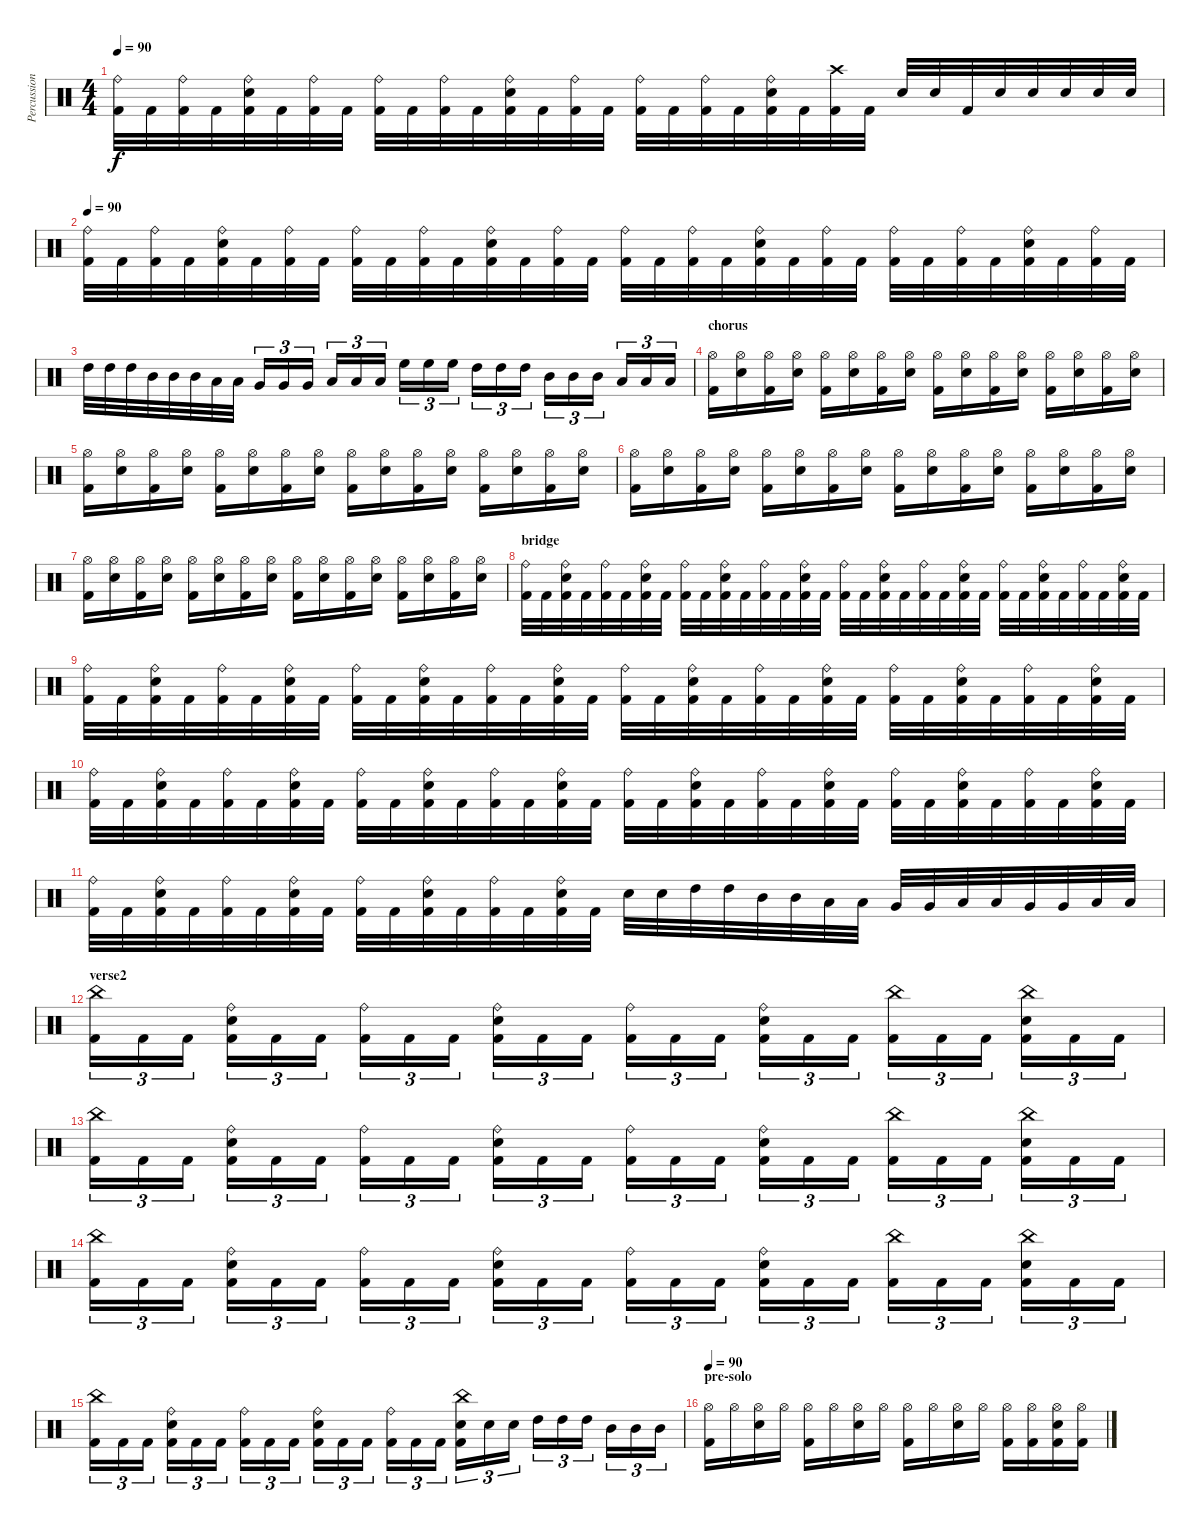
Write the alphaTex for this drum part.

\track ("Percussions" "Percussion") {instrument percussion}
\staff {score}
\articulation defaults
\ts (4 4)
\tempo 90
\clef neutral
\ks c
("Ride (bell)" "Kick (hit) 2").32{dy f} "Kick (hit) 2".32 ("Ride (bell)" "Kick (hit) 2").32 "Kick (hit) 2".32 ("Ride (bell)" "Electric Snare (hit)" "Kick (hit) 2").32 "Kick (hit) 2".32 ("Ride (bell)" "Kick (hit) 2").32 "Kick (hit) 2".32 ("Ride (bell)" "Kick (hit) 2").32 "Kick (hit) 2".32 ("Ride (bell)" "Kick (hit) 2").32 "Kick (hit) 2".32 ("Ride (bell)" "Electric Snare (hit)" "Kick (hit) 2").32 "Kick (hit) 2".32 ("Ride (bell)" "Kick (hit) 2").32 "Kick (hit) 2".32 ("Ride (bell)" "Kick (hit) 2").32 "Kick (hit) 2".32 ("Ride (bell)" "Kick (hit) 2").32 "Kick (hit) 2".32 ("Ride (bell)" "Electric Snare (hit)" "Kick (hit) 2").32 "Kick (hit) 2".32 ("Crash high (hit)" "Kick (hit) 2").32 "Kick (hit) 2".32 "Electric Snare (hit)".32 "Electric Snare (hit)".32 "Kick (hit) 2".32 "Electric Snare (hit)".32 "Electric Snare (hit)".32 "Electric Snare (hit)".32 "Electric Snare (hit)".32 "Electric Snare (hit)".32 |
\tempo 90
("Ride (bell)" "Kick (hit) 2").32 "Kick (hit) 2".32 ("Ride (bell)" "Kick (hit) 2").32 "Kick (hit) 2".32 ("Ride (bell)" "Electric Snare (hit)" "Kick (hit) 2").32 "Kick (hit) 2".32 ("Ride (bell)" "Kick (hit) 2").32 "Kick (hit) 2".32 ("Ride (bell)" "Kick (hit) 2").32 "Kick (hit) 2".32 ("Ride (bell)" "Kick (hit) 2").32 "Kick (hit) 2".32 ("Ride (bell)" "Electric Snare (hit)" "Kick (hit) 2").32 "Kick (hit) 2".32 ("Ride (bell)" "Kick (hit) 2").32 "Kick (hit) 2".32 ("Ride (bell)" "Kick (hit) 2").32 "Kick (hit) 2".32 ("Ride (bell)" "Kick (hit) 2").32 "Kick (hit) 2".32 ("Ride (bell)" "Electric Snare (hit)" "Kick (hit) 2").32 "Kick (hit) 2".32 ("Ride (bell)" "Kick (hit) 2").32 "Kick (hit) 2".32 ("Ride (bell)" "Kick (hit) 2").32 "Kick (hit) 2".32 ("Ride (bell)" "Kick (hit) 2").32 "Kick (hit) 2".32 ("Ride (bell)" "Electric Snare (hit)" "Kick (hit) 2").32 "Kick (hit) 2".32 ("Ride (bell)" "Kick (hit) 2").32 "Kick (hit) 2".32 |
"High Tom (hit)".32 "High Tom (hit)".32 "High Tom (hit)".32 "Mid Tom (hit)".32 "Mid Tom (hit)".32 "Mid Tom (hit)".32 "Low Tom (hit)".32 "Low Tom (hit)".32 "Very Low Tom (hit)".16{tu (3 2)} "Very Low Tom (hit)".16{tu (3 2)} "Very Low Tom (hit)".16{tu (3 2)} "Low Floor Tom (hit)".16{tu (3 2)} "Low Floor Tom (hit)".16{tu (3 2)} "Low Floor Tom (hit)".16{tu (3 2)} "High Floor Tom (hit)".16{tu (3 2)} "High Floor Tom (hit)".16{tu (3 2)} "High Floor Tom (hit)".16{tu (3 2)} "High Tom (hit)".16{tu (3 2)} "High Tom (hit)".16{tu (3 2)} "High Tom (hit)".16{tu (3 2)} "Mid Tom (hit)".16{tu (3 2)} "Mid Tom (hit)".16{tu (3 2)} "Mid Tom (hit)".16{tu (3 2)} "Low Tom (hit)".16{tu (3 2)} "Low Tom (hit)".16{tu (3 2)} "Low Tom (hit)".16{tu (3 2)} |
\section ("" "chorus")
("Hi-Hat (open)" "Kick (hit) 2").16 ("Hi-Hat (open)" "Electric Snare (hit)").16 ("Hi-Hat (open)" "Kick (hit) 2").16 ("Hi-Hat (open)" "Electric Snare (hit)").16 ("Hi-Hat (open)" "Kick (hit) 2").16 ("Hi-Hat (open)" "Electric Snare (hit)").16 ("Hi-Hat (open)" "Kick (hit) 2").16 ("Hi-Hat (open)" "Electric Snare (hit)").16 ("Hi-Hat (open)" "Kick (hit) 2").16 ("Hi-Hat (open)" "Electric Snare (hit)").16 ("Hi-Hat (open)" "Kick (hit) 2").16 ("Hi-Hat (open)" "Electric Snare (hit)").16 ("Hi-Hat (open)" "Kick (hit) 2").16 ("Hi-Hat (open)" "Electric Snare (hit)").16 ("Hi-Hat (open)" "Kick (hit) 2").16 ("Hi-Hat (open)" "Electric Snare (hit)").16 |
("Hi-Hat (open)" "Kick (hit) 2").16 ("Hi-Hat (open)" "Electric Snare (hit)").16 ("Hi-Hat (open)" "Kick (hit) 2").16 ("Hi-Hat (open)" "Electric Snare (hit)").16 ("Hi-Hat (open)" "Kick (hit) 2").16 ("Hi-Hat (open)" "Electric Snare (hit)").16 ("Hi-Hat (open)" "Kick (hit) 2").16 ("Hi-Hat (open)" "Electric Snare (hit)").16 ("Hi-Hat (open)" "Kick (hit) 2").16 ("Hi-Hat (open)" "Electric Snare (hit)").16 ("Hi-Hat (open)" "Kick (hit) 2").16 ("Hi-Hat (open)" "Electric Snare (hit)").16 ("Hi-Hat (open)" "Kick (hit) 2").16 ("Hi-Hat (open)" "Electric Snare (hit)").16 ("Hi-Hat (open)" "Kick (hit) 2").16 ("Hi-Hat (open)" "Electric Snare (hit)").16 |
("Hi-Hat (open)" "Kick (hit) 2").16 ("Hi-Hat (open)" "Electric Snare (hit)").16 ("Hi-Hat (open)" "Kick (hit) 2").16 ("Hi-Hat (open)" "Electric Snare (hit)").16 ("Hi-Hat (open)" "Kick (hit) 2").16 ("Hi-Hat (open)" "Electric Snare (hit)").16 ("Hi-Hat (open)" "Kick (hit) 2").16 ("Hi-Hat (open)" "Electric Snare (hit)").16 ("Hi-Hat (open)" "Kick (hit) 2").16 ("Hi-Hat (open)" "Electric Snare (hit)").16 ("Hi-Hat (open)" "Kick (hit) 2").16 ("Hi-Hat (open)" "Electric Snare (hit)").16 ("Hi-Hat (open)" "Kick (hit) 2").16 ("Hi-Hat (open)" "Electric Snare (hit)").16 ("Hi-Hat (open)" "Kick (hit) 2").16 ("Hi-Hat (open)" "Electric Snare (hit)").16 |
("Hi-Hat (open)" "Kick (hit) 2").16 ("Hi-Hat (open)" "Electric Snare (hit)").16 ("Hi-Hat (open)" "Kick (hit) 2").16 ("Hi-Hat (open)" "Electric Snare (hit)").16 ("Hi-Hat (open)" "Kick (hit) 2").16 ("Hi-Hat (open)" "Electric Snare (hit)").16 ("Hi-Hat (open)" "Kick (hit) 2").16 ("Hi-Hat (open)" "Electric Snare (hit)").16 ("Hi-Hat (open)" "Kick (hit) 2").16 ("Hi-Hat (open)" "Electric Snare (hit)").16 ("Hi-Hat (open)" "Kick (hit) 2").16 ("Hi-Hat (open)" "Electric Snare (hit)").16 ("Hi-Hat (open)" "Kick (hit) 2").16 ("Hi-Hat (open)" "Electric Snare (hit)").16 ("Hi-Hat (open)" "Kick (hit) 2").16 ("Hi-Hat (open)" "Electric Snare (hit)").16 |
\section ("" "bridge")
("Ride (bell)" "Kick (hit) 2").32 "Kick (hit) 2".32 ("Ride (bell)" "Electric Snare (hit)" "Kick (hit) 2").32 "Kick (hit) 2".32 ("Ride (bell)" "Kick (hit) 2").32 "Kick (hit) 2".32 ("Ride (bell)" "Electric Snare (hit)" "Kick (hit) 2").32 "Kick (hit) 2".32 ("Ride (bell)" "Kick (hit) 2").32 "Kick (hit) 2".32 ("Ride (bell)" "Electric Snare (hit)" "Kick (hit) 2").32 "Kick (hit) 2".32 ("Ride (bell)" "Kick (hit) 2").32 "Kick (hit) 2".32 ("Ride (bell)" "Electric Snare (hit)" "Kick (hit) 2").32 "Kick (hit) 2".32 ("Ride (bell)" "Kick (hit) 2").32 "Kick (hit) 2".32 ("Ride (bell)" "Electric Snare (hit)" "Kick (hit) 2").32 "Kick (hit) 2".32 ("Ride (bell)" "Kick (hit) 2").32 "Kick (hit) 2".32 ("Ride (bell)" "Electric Snare (hit)" "Kick (hit) 2").32 "Kick (hit) 2".32 ("Ride (bell)" "Kick (hit) 2").32 "Kick (hit) 2".32 ("Ride (bell)" "Electric Snare (hit)" "Kick (hit) 2").32 "Kick (hit) 2".32 ("Ride (bell)" "Kick (hit) 2").32 "Kick (hit) 2".32 ("Ride (bell)" "Electric Snare (hit)" "Kick (hit) 2").32 "Kick (hit) 2".32 |
("Ride (bell)" "Kick (hit) 2").32 "Kick (hit) 2".32 ("Ride (bell)" "Electric Snare (hit)" "Kick (hit) 2").32 "Kick (hit) 2".32 ("Ride (bell)" "Kick (hit) 2").32 "Kick (hit) 2".32 ("Ride (bell)" "Electric Snare (hit)" "Kick (hit) 2").32 "Kick (hit) 2".32 ("Ride (bell)" "Kick (hit) 2").32 "Kick (hit) 2".32 ("Ride (bell)" "Electric Snare (hit)" "Kick (hit) 2").32 "Kick (hit) 2".32 ("Ride (bell)" "Kick (hit) 2").32 "Kick (hit) 2".32 ("Ride (bell)" "Electric Snare (hit)" "Kick (hit) 2").32 "Kick (hit) 2".32 ("Ride (bell)" "Kick (hit) 2").32 "Kick (hit) 2".32 ("Ride (bell)" "Electric Snare (hit)" "Kick (hit) 2").32 "Kick (hit) 2".32 ("Ride (bell)" "Kick (hit) 2").32 "Kick (hit) 2".32 ("Ride (bell)" "Electric Snare (hit)" "Kick (hit) 2").32 "Kick (hit) 2".32 ("Ride (bell)" "Kick (hit) 2").32 "Kick (hit) 2".32 ("Ride (bell)" "Electric Snare (hit)" "Kick (hit) 2").32 "Kick (hit) 2".32 ("Ride (bell)" "Kick (hit) 2").32 "Kick (hit) 2".32 ("Ride (bell)" "Electric Snare (hit)" "Kick (hit) 2").32 "Kick (hit) 2".32 |
("Ride (bell)" "Kick (hit) 2").32 "Kick (hit) 2".32 ("Ride (bell)" "Electric Snare (hit)" "Kick (hit) 2").32 "Kick (hit) 2".32 ("Ride (bell)" "Kick (hit) 2").32 "Kick (hit) 2".32 ("Ride (bell)" "Electric Snare (hit)" "Kick (hit) 2").32 "Kick (hit) 2".32 ("Ride (bell)" "Kick (hit) 2").32 "Kick (hit) 2".32 ("Ride (bell)" "Electric Snare (hit)" "Kick (hit) 2").32 "Kick (hit) 2".32 ("Ride (bell)" "Kick (hit) 2").32 "Kick (hit) 2".32 ("Ride (bell)" "Electric Snare (hit)" "Kick (hit) 2").32 "Kick (hit) 2".32 ("Ride (bell)" "Kick (hit) 2").32 "Kick (hit) 2".32 ("Ride (bell)" "Electric Snare (hit)" "Kick (hit) 2").32 "Kick (hit) 2".32 ("Ride (bell)" "Kick (hit) 2").32 "Kick (hit) 2".32 ("Ride (bell)" "Electric Snare (hit)" "Kick (hit) 2").32 "Kick (hit) 2".32 ("Ride (bell)" "Kick (hit) 2").32 "Kick (hit) 2".32 ("Ride (bell)" "Electric Snare (hit)" "Kick (hit) 2").32 "Kick (hit) 2".32 ("Ride (bell)" "Kick (hit) 2").32 "Kick (hit) 2".32 ("Ride (bell)" "Electric Snare (hit)" "Kick (hit) 2").32 "Kick (hit) 2".32 |
("Ride (bell)" "Kick (hit) 2").32 "Kick (hit) 2".32 ("Ride (bell)" "Electric Snare (hit)" "Kick (hit) 2").32 "Kick (hit) 2".32 ("Ride (bell)" "Kick (hit) 2").32 "Kick (hit) 2".32 ("Ride (bell)" "Electric Snare (hit)" "Kick (hit) 2").32 "Kick (hit) 2".32 ("Ride (bell)" "Kick (hit) 2").32 "Kick (hit) 2".32 ("Ride (bell)" "Electric Snare (hit)" "Kick (hit) 2").32 "Kick (hit) 2".32 ("Ride (bell)" "Kick (hit) 2").32 "Kick (hit) 2".32 ("Ride (bell)" "Electric Snare (hit)" "Kick (hit) 2").32 "Kick (hit) 2".32 "Electric Snare (hit)".32 "Electric Snare (hit)".32 "High Tom (hit)".32 "High Tom (hit)".32 "Mid Tom (hit)".32 "Mid Tom (hit)".32 "Low Tom (hit)".32 "Low Tom (hit)".32 "Very Low Tom (hit)".32 "Very Low Tom (hit)".32 "Low Floor Tom (hit)".32 "Low Floor Tom (hit)".32 "Very Low Tom (hit)".32 "Very Low Tom (hit)".32 "Low Floor Tom (hit)".32 "Low Floor Tom (hit)".32 |
\section ("" "verse2")
("China (hit)" "Kick (hit) 2").16{tu (3 2)} "Kick (hit) 2".16{tu (3 2)} "Kick (hit) 2".16{tu (3 2)} ("Ride (bell)" "Electric Snare (hit)" "Kick (hit) 2").16{tu (3 2)} "Kick (hit) 2".16{tu (3 2)} "Kick (hit) 2".16{tu (3 2)} ("Ride (bell)" "Kick (hit) 2").16{tu (3 2)} "Kick (hit) 2".16{tu (3 2)} "Kick (hit) 2".16{tu (3 2)} ("Ride (bell)" "Electric Snare (hit)" "Kick (hit) 2").16{tu (3 2)} "Kick (hit) 2".16{tu (3 2)} "Kick (hit) 2".16{tu (3 2)} ("Ride (bell)" "Kick (hit) 2").16{tu (3 2)} "Kick (hit) 2".16{tu (3 2)} "Kick (hit) 2".16{tu (3 2)} ("Ride (bell)" "Electric Snare (hit)" "Kick (hit) 2").16{tu (3 2)} "Kick (hit) 2".16{tu (3 2)} "Kick (hit) 2".16{tu (3 2)} ("China (hit)" "Kick (hit) 2").16{tu (3 2)} "Kick (hit) 2".16{tu (3 2)} "Kick (hit) 2".16{tu (3 2)} ("China (hit)" "Electric Snare (hit)" "Kick (hit) 2").16{tu (3 2)} "Kick (hit) 2".16{tu (3 2)} "Kick (hit) 2".16{tu (3 2)} |
("China (hit)" "Kick (hit) 2").16{tu (3 2)} "Kick (hit) 2".16{tu (3 2)} "Kick (hit) 2".16{tu (3 2)} ("Ride (bell)" "Electric Snare (hit)" "Kick (hit) 2").16{tu (3 2)} "Kick (hit) 2".16{tu (3 2)} "Kick (hit) 2".16{tu (3 2)} ("Ride (bell)" "Kick (hit) 2").16{tu (3 2)} "Kick (hit) 2".16{tu (3 2)} "Kick (hit) 2".16{tu (3 2)} ("Ride (bell)" "Electric Snare (hit)" "Kick (hit) 2").16{tu (3 2)} "Kick (hit) 2".16{tu (3 2)} "Kick (hit) 2".16{tu (3 2)} ("Ride (bell)" "Kick (hit) 2").16{tu (3 2)} "Kick (hit) 2".16{tu (3 2)} "Kick (hit) 2".16{tu (3 2)} ("Ride (bell)" "Electric Snare (hit)" "Kick (hit) 2").16{tu (3 2)} "Kick (hit) 2".16{tu (3 2)} "Kick (hit) 2".16{tu (3 2)} ("China (hit)" "Kick (hit) 2").16{tu (3 2)} "Kick (hit) 2".16{tu (3 2)} "Kick (hit) 2".16{tu (3 2)} ("China (hit)" "Electric Snare (hit)" "Kick (hit) 2").16{tu (3 2)} "Kick (hit) 2".16{tu (3 2)} "Kick (hit) 2".16{tu (3 2)} |
("China (hit)" "Kick (hit) 2").16{tu (3 2)} "Kick (hit) 2".16{tu (3 2)} "Kick (hit) 2".16{tu (3 2)} ("Ride (bell)" "Electric Snare (hit)" "Kick (hit) 2").16{tu (3 2)} "Kick (hit) 2".16{tu (3 2)} "Kick (hit) 2".16{tu (3 2)} ("Ride (bell)" "Kick (hit) 2").16{tu (3 2)} "Kick (hit) 2".16{tu (3 2)} "Kick (hit) 2".16{tu (3 2)} ("Ride (bell)" "Electric Snare (hit)" "Kick (hit) 2").16{tu (3 2)} "Kick (hit) 2".16{tu (3 2)} "Kick (hit) 2".16{tu (3 2)} ("Ride (bell)" "Kick (hit) 2").16{tu (3 2)} "Kick (hit) 2".16{tu (3 2)} "Kick (hit) 2".16{tu (3 2)} ("Ride (bell)" "Electric Snare (hit)" "Kick (hit) 2").16{tu (3 2)} "Kick (hit) 2".16{tu (3 2)} "Kick (hit) 2".16{tu (3 2)} ("China (hit)" "Kick (hit) 2").16{tu (3 2)} "Kick (hit) 2".16{tu (3 2)} "Kick (hit) 2".16{tu (3 2)} ("China (hit)" "Electric Snare (hit)" "Kick (hit) 2").16{tu (3 2)} "Kick (hit) 2".16{tu (3 2)} "Kick (hit) 2".16{tu (3 2)} |
("China (hit)" "Kick (hit) 2").16{tu (3 2)} "Kick (hit) 2".16{tu (3 2)} "Kick (hit) 2".16{tu (3 2)} ("Ride (bell)" "Electric Snare (hit)" "Kick (hit) 2").16{tu (3 2)} "Kick (hit) 2".16{tu (3 2)} "Kick (hit) 2".16{tu (3 2)} ("Ride (bell)" "Kick (hit) 2").16{tu (3 2)} "Kick (hit) 2".16{tu (3 2)} "Kick (hit) 2".16{tu (3 2)} ("Ride (bell)" "Electric Snare (hit)" "Kick (hit) 2").16{tu (3 2)} "Kick (hit) 2".16{tu (3 2)} "Kick (hit) 2".16{tu (3 2)} ("Ride (bell)" "Kick (hit) 2").16{tu (3 2)} "Kick (hit) 2".16{tu (3 2)} "Kick (hit) 2".16{tu (3 2)} ("China (hit)" "Electric Snare (hit)" "Kick (hit) 2").16{tu (3 2)} "Electric Snare (hit)".16{tu (3 2)} "Electric Snare (hit)".16{tu (3 2)} "High Tom (hit)".16{tu (3 2)} "High Tom (hit)".16{tu (3 2)} "High Tom (hit)".16{tu (3 2)} "Mid Tom (hit)".16{tu (3 2)} "Mid Tom (hit)".16{tu (3 2)} "Mid Tom (hit)".16{tu (3 2)} |
\section ("" "pre-solo")
\tempo 90
("Hi-Hat (open)" "Kick (hit) 2").16 "Hi-Hat (open)".16 ("Hi-Hat (open)" "Electric Snare (hit)").16 "Hi-Hat (open)".16 ("Hi-Hat (open)" "Kick (hit) 2").16 "Hi-Hat (open)".16 ("Hi-Hat (open)" "Electric Snare (hit)").16 "Hi-Hat (open)".16 ("Hi-Hat (open)" "Kick (hit) 2").16 "Hi-Hat (open)".16 ("Hi-Hat (open)" "Electric Snare (hit)").16 "Hi-Hat (open)".16 ("Hi-Hat (open)" "Kick (hit) 2").16 ("Hi-Hat (open)" "Kick (hit) 2").16 ("Hi-Hat (open)" "Electric Snare (hit)" "Kick (hit) 2").16 ("Hi-Hat (open)" "Kick (hit) 2").16
